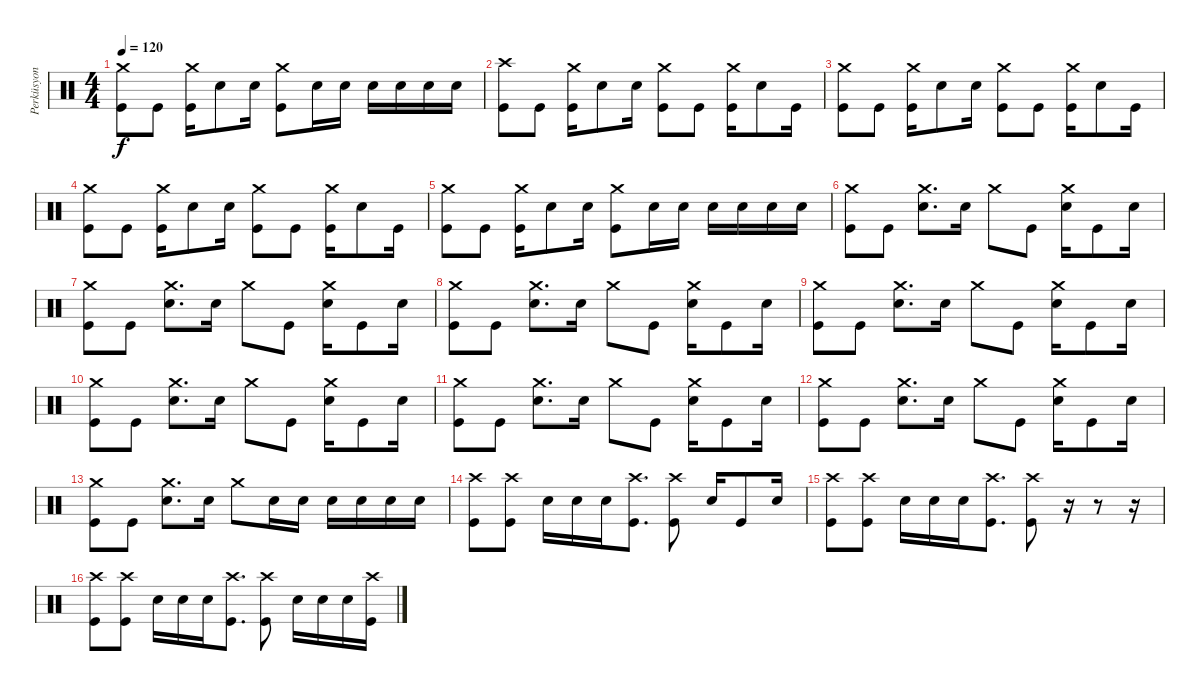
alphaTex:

\track ("Perküsyon" "Perküsyon") {instrument percussion}
\staff {score}
\articulation defaults
\ts (4 4)
\tempo 120
\clef neutral
\ks c
("Kick (hit)" "Crash medium (hit)").8{dy f} "Kick (hit)".8 ("Kick (hit)" "Crash medium (hit)").16 "Snare (hit) 2".8 "Snare (hit) 2".16 ("Kick (hit)" "Crash medium (hit)").8 "Snare (hit) 2".16 "Snare (hit) 2".16 "Snare (hit) 2".16 "Snare (hit) 2".16 "Snare (hit) 2".16 "Snare (hit) 2".16 |
("Kick (hit)" "Crash high (hit)").8 "Kick (hit)".8 ("Kick (hit)" "Crash medium (hit)").16 "Snare (hit) 2".8 "Snare (hit) 2".16 ("Kick (hit)" "Crash medium (hit)").8 "Kick (hit)".8 ("Kick (hit)" "Crash medium (hit)").16 "Snare (hit) 2".8 "Kick (hit)".16 |
("Kick (hit)" "Crash medium (hit)").8 "Kick (hit)".8 ("Kick (hit)" "Crash medium (hit)").16 "Snare (hit) 2".8 "Snare (hit) 2".16 ("Kick (hit)" "Crash medium (hit)").8 "Kick (hit)".8 ("Kick (hit)" "Crash medium (hit)").16 "Snare (hit) 2".8 "Kick (hit)".16 |
("Kick (hit)" "Crash medium (hit)").8 "Kick (hit)".8 ("Kick (hit)" "Crash medium (hit)").16 "Snare (hit) 2".8 "Snare (hit) 2".16 ("Kick (hit)" "Crash medium (hit)").8 "Kick (hit)".8 ("Kick (hit)" "Crash medium (hit)").16 "Snare (hit) 2".8 "Kick (hit)".16 |
("Kick (hit)" "Crash medium (hit)").8 "Kick (hit)".8 ("Kick (hit)" "Crash medium (hit)").16 "Snare (hit) 2".8 "Snare (hit) 2".16 ("Kick (hit)" "Crash medium (hit)").8 "Snare (hit) 2".16 "Snare (hit) 2".16 "Snare (hit) 2".16 "Snare (hit) 2".16 "Snare (hit) 2".16 "Snare (hit) 2".16 |
("Kick (hit)" "Crash medium (hit)").8 "Kick (hit)".8 ("Snare (hit) 2" "Crash medium (hit)").8{d} "Snare (hit) 2".16 "Crash medium (hit)".8 "Kick (hit)".8 ("Snare (hit) 2" "Crash medium (hit)").16 "Kick (hit)".8 "Snare (hit) 2".16 |
("Kick (hit)" "Crash medium (hit)").8 "Kick (hit)".8 ("Snare (hit) 2" "Crash medium (hit)").8{d} "Snare (hit) 2".16 "Crash medium (hit)".8 "Kick (hit)".8 ("Snare (hit) 2" "Crash medium (hit)").16 "Kick (hit)".8 "Snare (hit) 2".16 |
("Kick (hit)" "Crash medium (hit)").8 "Kick (hit)".8 ("Snare (hit) 2" "Crash medium (hit)").8{d} "Snare (hit) 2".16 "Crash medium (hit)".8 "Kick (hit)".8 ("Snare (hit) 2" "Crash medium (hit)").16 "Kick (hit)".8 "Snare (hit) 2".16 |
("Kick (hit)" "Crash medium (hit)").8 "Kick (hit)".8 ("Snare (hit) 2" "Crash medium (hit)").8{d} "Snare (hit) 2".16 "Crash medium (hit)".8 "Kick (hit)".8 ("Snare (hit) 2" "Crash medium (hit)").16 "Kick (hit)".8 "Snare (hit) 2".16 |
("Kick (hit)" "Crash medium (hit)").8 "Kick (hit)".8 ("Snare (hit) 2" "Crash medium (hit)").8{d} "Snare (hit) 2".16 "Crash medium (hit)".8 "Kick (hit)".8 ("Snare (hit) 2" "Crash medium (hit)").16 "Kick (hit)".8 "Snare (hit) 2".16 |
("Kick (hit)" "Crash medium (hit)").8 "Kick (hit)".8 ("Snare (hit) 2" "Crash medium (hit)").8{d} "Snare (hit) 2".16 "Crash medium (hit)".8 "Kick (hit)".8 ("Snare (hit) 2" "Crash medium (hit)").16 "Kick (hit)".8 "Snare (hit) 2".16 |
("Kick (hit)" "Crash medium (hit)").8 "Kick (hit)".8 ("Snare (hit) 2" "Crash medium (hit)").8{d} "Snare (hit) 2".16 "Crash medium (hit)".8 "Kick (hit)".8 ("Snare (hit) 2" "Crash medium (hit)").16 "Kick (hit)".8 "Snare (hit) 2".16 |
("Kick (hit)" "Crash medium (hit)").8 "Kick (hit)".8 ("Snare (hit) 2" "Crash medium (hit)").8{d} "Snare (hit) 2".16 "Crash medium (hit)".8 "Snare (hit) 2".16 "Snare (hit) 2".16 "Snare (hit) 2".16 "Snare (hit) 2".16 "Snare (hit) 2".16 "Snare (hit) 2".16 |
("Kick (hit)" "Crash high (hit)").8 ("Kick (hit)" "Crash high (hit)").8 "Snare (hit) 2".16 "Snare (hit) 2".16 "Snare (hit) 2".16 ("Kick (hit)" "Crash high (hit)").8{d} ("Kick (hit)" "Crash high (hit)").8 "Snare (hit) 2".16 "Kick (hit)".8 "Snare (hit) 2".16 |
("Kick (hit)" "Crash high (hit)").8 ("Kick (hit)" "Crash high (hit)").8 "Snare (hit) 2".16 "Snare (hit) 2".16 "Snare (hit) 2".16 ("Kick (hit)" "Crash high (hit)").8{d} ("Kick (hit)" "Crash high (hit)").8 r.16 r.8 r.16 |
("Kick (hit)" "Crash high (hit)").8 ("Kick (hit)" "Crash high (hit)").8 "Snare (hit) 2".16 "Snare (hit) 2".16 "Snare (hit) 2".16 ("Kick (hit)" "Crash high (hit)").8{d} ("Kick (hit)" "Crash high (hit)").8 "Snare (hit) 2".16 "Snare (hit) 2".16 "Snare (hit) 2".16 ("Kick (hit)" "Crash high (hit)").16
